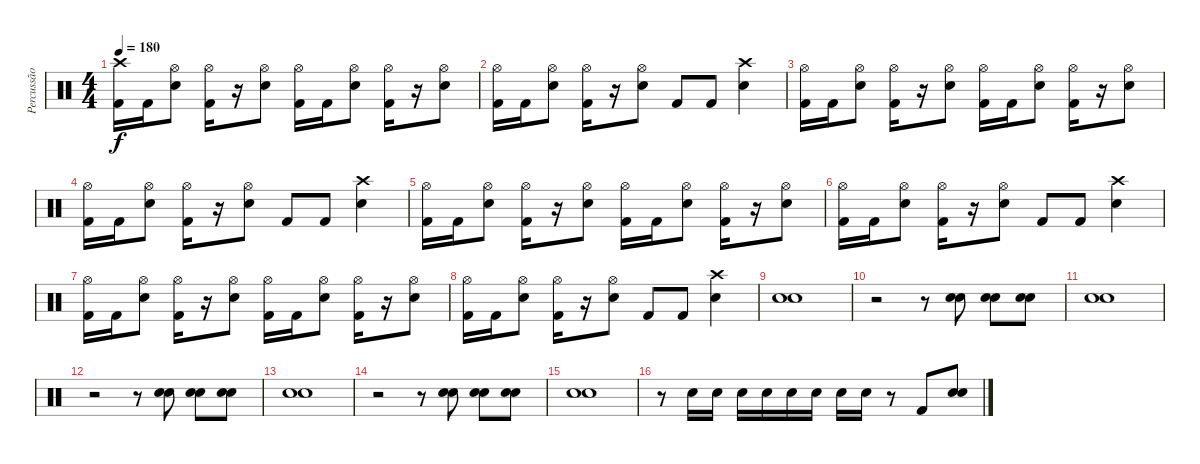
\track ("Percussão" "Percussão") {instrument percussion}
\staff {score}
\articulation defaults
\ts (4 4)
\tempo 180
\clef neutral
\ks c
("Crash high (hit)" "Kick (hit) 2").16{dy f} "Kick (hit) 2".16 ("Hi-Hat (open)" "Electric Snare (hit)").8 ("Hi-Hat (open)" "Kick (hit) 2").16 r.16 ("Hi-Hat (open)" "Electric Snare (hit)").8 ("Hi-Hat (open)" "Kick (hit) 2").16 "Kick (hit) 2".16 ("Hi-Hat (open)" "Electric Snare (hit)").8 ("Hi-Hat (open)" "Kick (hit) 2").16 r.16 ("Hi-Hat (open)" "Electric Snare (hit)").8 |
("Hi-Hat (open)" "Kick (hit) 2").16 "Kick (hit) 2".16 ("Hi-Hat (open)" "Electric Snare (hit)").8 ("Hi-Hat (open)" "Kick (hit) 2").16 r.16 ("Hi-Hat (open)" "Electric Snare (hit)").8 "Kick (hit) 2".8 "Kick (hit) 2".8 ("Crash high (hit)" "Electric Snare (hit)").4 |
("Hi-Hat (open)" "Kick (hit) 2").16 "Kick (hit) 2".16 ("Hi-Hat (open)" "Electric Snare (hit)").8 ("Hi-Hat (open)" "Kick (hit) 2").16 r.16 ("Hi-Hat (open)" "Electric Snare (hit)").8 ("Hi-Hat (open)" "Kick (hit) 2").16 "Kick (hit) 2".16 ("Hi-Hat (open)" "Electric Snare (hit)").8 ("Hi-Hat (open)" "Kick (hit) 2").16 r.16 ("Hi-Hat (open)" "Electric Snare (hit)").8 |
("Hi-Hat (open)" "Kick (hit) 2").16 "Kick (hit) 2".16 ("Hi-Hat (open)" "Electric Snare (hit)").8 ("Hi-Hat (open)" "Kick (hit) 2").16 r.16 ("Hi-Hat (open)" "Electric Snare (hit)").8 "Kick (hit) 2".8 "Kick (hit) 2".8 ("Crash high (hit)" "Electric Snare (hit)").4 |
("Hi-Hat (open)" "Kick (hit) 2").16 "Kick (hit) 2".16 ("Hi-Hat (open)" "Electric Snare (hit)").8 ("Hi-Hat (open)" "Kick (hit) 2").16 r.16 ("Hi-Hat (open)" "Electric Snare (hit)").8 ("Hi-Hat (open)" "Kick (hit) 2").16 "Kick (hit) 2".16 ("Hi-Hat (open)" "Electric Snare (hit)").8 ("Hi-Hat (open)" "Kick (hit) 2").16 r.16 ("Hi-Hat (open)" "Electric Snare (hit)").8 |
("Hi-Hat (open)" "Kick (hit) 2").16 "Kick (hit) 2".16 ("Hi-Hat (open)" "Electric Snare (hit)").8 ("Hi-Hat (open)" "Kick (hit) 2").16 r.16 ("Hi-Hat (open)" "Electric Snare (hit)").8 "Kick (hit) 2".8 "Kick (hit) 2".8 ("Crash high (hit)" "Electric Snare (hit)").4 |
("Hi-Hat (open)" "Kick (hit) 2").16 "Kick (hit) 2".16 ("Hi-Hat (open)" "Electric Snare (hit)").8 ("Hi-Hat (open)" "Kick (hit) 2").16 r.16 ("Hi-Hat (open)" "Electric Snare (hit)").8 ("Hi-Hat (open)" "Kick (hit) 2").16 "Kick (hit) 2".16 ("Hi-Hat (open)" "Electric Snare (hit)").8 ("Hi-Hat (open)" "Kick (hit) 2").16 r.16 ("Hi-Hat (open)" "Electric Snare (hit)").8 |
("Hi-Hat (open)" "Kick (hit) 2").16 "Kick (hit) 2".16 ("Hi-Hat (open)" "Electric Snare (hit)").8 ("Hi-Hat (open)" "Kick (hit) 2").16 r.16 ("Hi-Hat (open)" "Electric Snare (hit)").8 "Kick (hit) 2".8 "Kick (hit) 2".8 ("Crash high (hit)" "Electric Snare (hit)").4 |
("Electric Snare (hit)" "Electric Snare (hit)").1 |
r.2 r.8 ("Electric Snare (hit)" "Electric Snare (hit)").8 ("Electric Snare (hit)" "Electric Snare (hit)").8 ("Electric Snare (hit)" "Electric Snare (hit)").8 |
("Electric Snare (hit)" "Electric Snare (hit)").1 |
r.2 r.8 ("Electric Snare (hit)" "Electric Snare (hit)").8 ("Electric Snare (hit)" "Electric Snare (hit)").8 ("Electric Snare (hit)" "Electric Snare (hit)").8 |
("Electric Snare (hit)" "Electric Snare (hit)").1 |
r.2 r.8 ("Electric Snare (hit)" "Electric Snare (hit)").8 ("Electric Snare (hit)" "Electric Snare (hit)").8 ("Electric Snare (hit)" "Electric Snare (hit)").8 |
("Electric Snare (hit)" "Electric Snare (hit)").1 |
r.8 "Electric Snare (hit)".16 "Electric Snare (hit)".16 "Electric Snare (hit)".16 "Electric Snare (hit)".16 "Electric Snare (hit)".16 "Electric Snare (hit)".16 "Electric Snare (hit)".16 "Electric Snare (hit)".16 r.8 "Kick (hit) 2".8 ("Electric Snare (hit)" "Electric Snare (hit)").8{bd 240}
